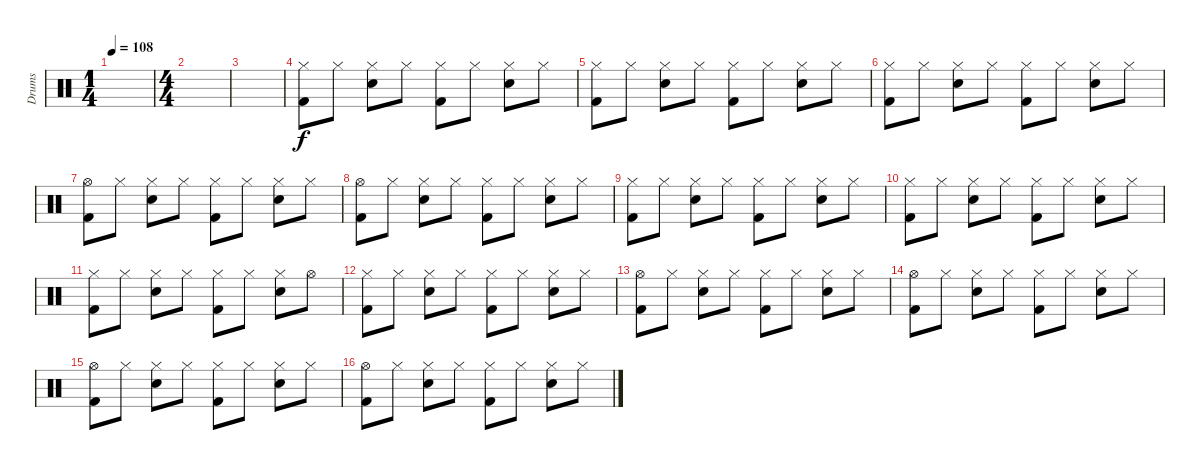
\track ("Drums" "Drums") {instrument percussion}
\staff {score}
\articulation defaults
\ts (1 4)
\tempo 108
\clef neutral
\ks c
|
\ts (4 4)
|
|
("Hi-Hat (closed)" "Kick (hit) 2").8 "Hi-Hat (closed)".8 ("Hi-Hat (closed)" "Snare (hit) 2").8 "Hi-Hat (closed)".8 ("Hi-Hat (closed)" "Kick (hit) 2").8 "Hi-Hat (closed)".8 ("Hi-Hat (closed)" "Snare (hit) 2").8 "Hi-Hat (closed)".8 |
("Hi-Hat (closed)" "Kick (hit) 2").8 "Hi-Hat (closed)".8 ("Hi-Hat (closed)" "Snare (hit) 2").8 "Hi-Hat (closed)".8 ("Hi-Hat (closed)" "Kick (hit) 2").8 "Hi-Hat (closed)".8 ("Hi-Hat (closed)" "Snare (hit) 2").8 "Hi-Hat (closed)".8 |
("Hi-Hat (closed)" "Kick (hit) 2").8 "Hi-Hat (closed)".8 ("Hi-Hat (closed)" "Snare (hit) 2").8 "Hi-Hat (closed)".8 ("Hi-Hat (closed)" "Kick (hit) 2").8 "Hi-Hat (closed)".8 ("Hi-Hat (closed)" "Snare (hit) 2").8 "Hi-Hat (closed)".8 |
("Hi-Hat (open)" "Kick (hit) 2").8 "Hi-Hat (closed)".8 ("Hi-Hat (closed)" "Snare (hit) 2").8 "Hi-Hat (closed)".8 ("Hi-Hat (closed)" "Kick (hit) 2").8 "Hi-Hat (closed)".8 ("Hi-Hat (closed)" "Snare (hit) 2").8 "Hi-Hat (closed)".8 |
("Hi-Hat (open)" "Kick (hit) 2").8 "Hi-Hat (closed)".8 ("Hi-Hat (closed)" "Snare (hit) 2").8 "Hi-Hat (closed)".8 ("Hi-Hat (closed)" "Kick (hit) 2").8 "Hi-Hat (closed)".8 ("Hi-Hat (closed)" "Snare (hit) 2").8 "Hi-Hat (closed)".8 |
("Hi-Hat (closed)" "Kick (hit) 2").8 "Hi-Hat (closed)".8 ("Hi-Hat (closed)" "Snare (hit) 2").8 "Hi-Hat (closed)".8 ("Hi-Hat (closed)" "Kick (hit) 2").8 "Hi-Hat (closed)".8 ("Hi-Hat (closed)" "Snare (hit) 2").8 "Hi-Hat (closed)".8 |
("Hi-Hat (closed)" "Kick (hit) 2").8 "Hi-Hat (closed)".8 ("Hi-Hat (closed)" "Snare (hit) 2").8 "Hi-Hat (closed)".8 ("Hi-Hat (closed)" "Kick (hit) 2").8 "Hi-Hat (closed)".8 ("Hi-Hat (closed)" "Snare (hit) 2").8 "Hi-Hat (closed)".8 |
("Hi-Hat (closed)" "Kick (hit) 2").8 "Hi-Hat (closed)".8 ("Hi-Hat (closed)" "Snare (hit) 2").8 "Hi-Hat (closed)".8 ("Hi-Hat (closed)" "Kick (hit) 2").8 "Hi-Hat (closed)".8 ("Hi-Hat (closed)" "Snare (hit) 2").8 "Hi-Hat (open)".8 |
("Hi-Hat (closed)" "Kick (hit) 2").8 "Hi-Hat (closed)".8 ("Hi-Hat (closed)" "Snare (hit) 2").8 "Hi-Hat (closed)".8 ("Hi-Hat (closed)" "Kick (hit) 2").8 "Hi-Hat (closed)".8 ("Hi-Hat (closed)" "Snare (hit) 2").8 "Hi-Hat (closed)".8 |
("Hi-Hat (open)" "Kick (hit) 2").8 "Hi-Hat (closed)".8 ("Hi-Hat (closed)" "Snare (hit) 2").8 "Hi-Hat (closed)".8 ("Hi-Hat (closed)" "Kick (hit) 2").8 "Hi-Hat (closed)".8 ("Hi-Hat (closed)" "Snare (hit) 2").8 "Hi-Hat (closed)".8 |
("Hi-Hat (open)" "Kick (hit) 2").8 "Hi-Hat (closed)".8 ("Hi-Hat (closed)" "Snare (hit) 2").8 "Hi-Hat (closed)".8 ("Hi-Hat (closed)" "Kick (hit) 2").8 "Hi-Hat (closed)".8 ("Hi-Hat (closed)" "Snare (hit) 2").8 "Hi-Hat (closed)".8 |
("Hi-Hat (open)" "Kick (hit) 2").8 "Hi-Hat (closed)".8 ("Hi-Hat (closed)" "Snare (hit) 2").8 "Hi-Hat (closed)".8 ("Hi-Hat (closed)" "Kick (hit) 2").8 "Hi-Hat (closed)".8 ("Hi-Hat (closed)" "Snare (hit) 2").8 "Hi-Hat (closed)".8 |
("Hi-Hat (open)" "Kick (hit) 2").8 "Hi-Hat (closed)".8 ("Hi-Hat (closed)" "Snare (hit) 2").8 "Hi-Hat (closed)".8 ("Hi-Hat (closed)" "Kick (hit) 2").8 "Hi-Hat (closed)".8 ("Hi-Hat (closed)" "Snare (hit) 2").8 "Hi-Hat (closed)".8
